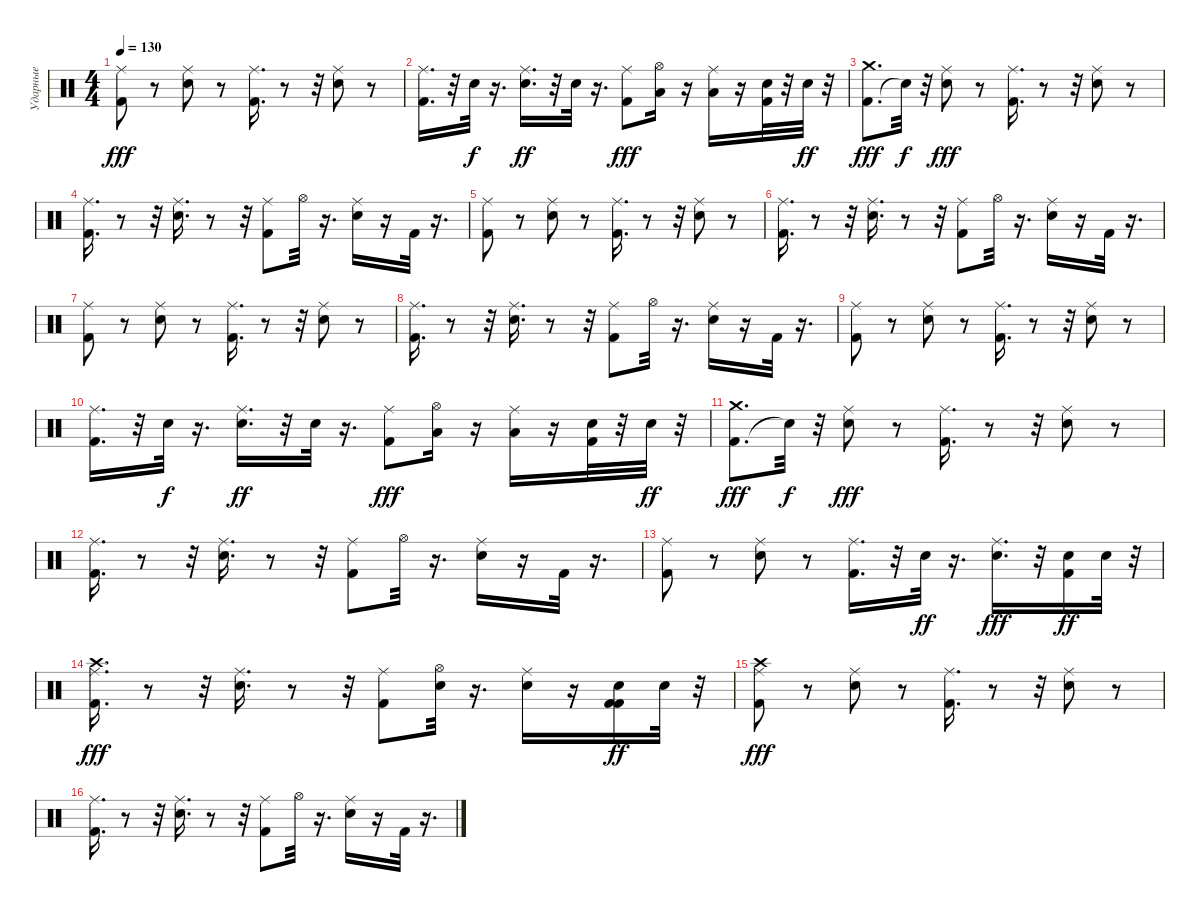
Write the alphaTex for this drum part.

\track ("Ударные" "Ударные") {instrument percussion}
\staff {score}
\articulation defaults
\ts (4 4)
\tempo 130
\clef neutral
\ks c
("Kick (hit) 2" "Ride (middle)").8{dy fff} r.8 ("Electric Snare (hit)" "Ride (middle)").8 r.8 ("Kick (hit) 2" "Ride (middle)").16{d} r.8 r.32 ("Electric Snare (hit)" "Ride (middle)").8 r.8 |
("Ride (middle)" "Kick (hit) 2").16{d} r.32 "Electric Snare (hit)".32{dy f} r.16{d} ("Ride (middle)" "Electric Snare (hit)").16{d dy ff} r.32 "Electric Snare (hit)".32 r.16{d} ("Kick (hit) 2" "Ride (middle)").8{dy fff} ("Low Tom (hit)" "Hi-Hat (open)").16 r.16 ("Low Tom (hit)" "Ride (middle)").16 r.16 ("Kick (hit) 2" "Snare (hit) 2").32 r.32 "Snare (hit) 2".32{dy ff} r.32 |
("Kick (hit) 2" "Crash medium (hit)").8{d dy fff} "Snare (hit)"{t}.32{dy f} r.32 ("Electric Snare (hit)" "Ride (middle)").8{dy fff} r.8 ("Kick (hit) 2" "Ride (middle)").16{d} r.8 r.32 ("Electric Snare (hit)" "Ride (middle)").8 r.8 |
("Ride (middle)" "Kick (hit) 2").16{d} r.8 r.32 ("Electric Snare (hit)" "Ride (middle)").16{d} r.8 r.32 ("Kick (hit) 2" "Ride (middle)").8 "Hi-Hat (open)".32 r.16{d} ("Electric Snare (hit)" "Ride (middle)").16 r.16 "Kick (hit) 2".32 r.16{d} |
("Kick (hit) 2" "Ride (middle)").8 r.8 ("Electric Snare (hit)" "Ride (middle)").8 r.8 ("Kick (hit) 2" "Ride (middle)").16{d} r.8 r.32 ("Electric Snare (hit)" "Ride (middle)").8 r.8 |
("Ride (middle)" "Kick (hit) 2").16{d} r.8 r.32 ("Electric Snare (hit)" "Ride (middle)").16{d} r.8 r.32 ("Kick (hit) 2" "Ride (middle)").8 "Hi-Hat (open)".32 r.16{d} ("Electric Snare (hit)" "Ride (middle)").16 r.16 "Kick (hit) 2".32 r.16{d} |
("Kick (hit) 2" "Ride (middle)").8 r.8 ("Electric Snare (hit)" "Ride (middle)").8 r.8 ("Kick (hit) 2" "Ride (middle)").16{d} r.8 r.32 ("Electric Snare (hit)" "Ride (middle)").8 r.8 |
("Ride (middle)" "Kick (hit) 2").16{d} r.8 r.32 ("Electric Snare (hit)" "Ride (middle)").16{d} r.8 r.32 ("Kick (hit) 2" "Ride (middle)").8 "Hi-Hat (open)".32 r.16{d} ("Electric Snare (hit)" "Ride (middle)").16 r.16 "Kick (hit) 2".32 r.16{d} |
("Kick (hit) 2" "Ride (middle)").8 r.8 ("Electric Snare (hit)" "Ride (middle)").8 r.8 ("Kick (hit) 2" "Ride (middle)").16{d} r.8 r.32 ("Electric Snare (hit)" "Ride (middle)").8 r.8 |
("Ride (middle)" "Kick (hit) 2").16{d} r.32 "Electric Snare (hit)".32{dy f} r.16{d} ("Ride (middle)" "Electric Snare (hit)").16{d dy ff} r.32 "Electric Snare (hit)".32 r.16{d} ("Kick (hit) 2" "Ride (middle)").8{dy fff} ("Low Tom (hit)" "Hi-Hat (open)").16 r.16 ("Low Tom (hit)" "Ride (middle)").16 r.16 ("Kick (hit) 2" "Snare (hit) 2").32 r.32 "Snare (hit) 2".32{dy ff} r.32 |
("Kick (hit) 2" "Crash medium (hit)").8{d dy fff} "Snare (hit)"{t}.32{dy f} r.32 ("Electric Snare (hit)" "Ride (middle)").8{dy fff} r.8 ("Kick (hit) 2" "Ride (middle)").16{d} r.8 r.32 ("Electric Snare (hit)" "Ride (middle)").8 r.8 |
("Ride (middle)" "Kick (hit) 2").16{d} r.8 r.32 ("Electric Snare (hit)" "Ride (middle)").16{d} r.8 r.32 ("Kick (hit) 2" "Ride (middle)").8 "Hi-Hat (open)".32 r.16{d} ("Electric Snare (hit)" "Ride (middle)").16 r.16 "Kick (hit) 2".32 r.16{d} |
("Kick (hit) 2" "Ride (middle)").8 r.8 ("Electric Snare (hit)" "Ride (middle)").8 r.8 ("Kick (hit) 2" "Ride (middle)").16{d} r.32 "Electric Snare (hit)".32{dy ff} r.16{d} ("Electric Snare (hit)" "Ride (middle)").16{d dy fff} r.32 ("Kick (hit) 2" "Electric Snare (hit)").16{dy ff} "Electric Snare (hit)".32 r.32 |
("Crash high (hit)" "Ride (middle)" "Kick (hit) 2").16{d dy fff} r.8 r.32 ("Electric Snare (hit)" "Ride (middle)").16{d} r.8 r.32 ("Kick (hit) 2" "Ride (middle)").8 ("Electric Snare (hit)" "Hi-Hat (open)").32 r.16{d} ("Electric Snare (hit)" "Ride (middle)").16 r.16 ("Kick (hit) 2" "Kick (hit) 2" "Electric Snare (hit)").16{dy ff} "Electric Snare (hit)".32 r.32 |
("Kick (hit) 2" "Crash high (hit)" "Ride (middle)").8{dy fff} r.8 ("Electric Snare (hit)" "Ride (middle)").8 r.8 ("Kick (hit) 2" "Ride (middle)").16{d} r.8 r.32 ("Electric Snare (hit)" "Ride (middle)").8 r.8 |
("Ride (middle)" "Kick (hit) 2").16{d} r.8 r.32 ("Electric Snare (hit)" "Ride (middle)").16{d} r.8 r.32 ("Kick (hit) 2" "Ride (middle)").8 "Hi-Hat (open)".32 r.16{d} ("Electric Snare (hit)" "Ride (middle)").16 r.16 "Kick (hit) 2".32 r.16{d}
